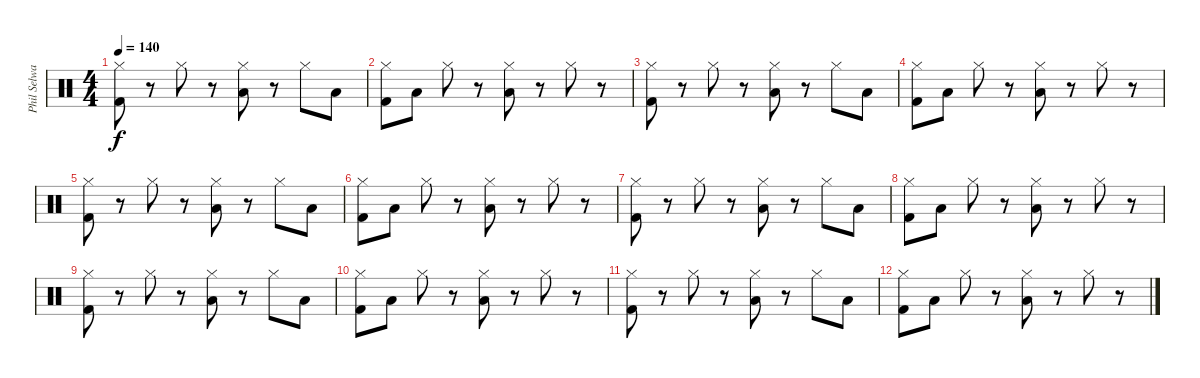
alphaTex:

\track ("Phil Selway" "Phil Selwa") {instrument percussion}
\staff {score}
\articulation defaults
\ts (4 4)
\tempo 140
\clef neutral
\ks c
("Hi-Hat (closed)" "Kick (hit) 2").8{dy f} r.8 "Hi-Hat (closed)".8 r.8 ("Hi-Hat (closed)" "Low Tom (hit)").8 r.8 "Hi-Hat (closed)".8 "Low Tom (hit)".8 |
("Hi-Hat (closed)" "Kick (hit) 2").8 "Low Tom (hit)".8 "Hi-Hat (closed)".8 r.8 ("Hi-Hat (closed)" "Low Tom (hit)").8 r.8 "Hi-Hat (closed)".8 r.8 |
("Hi-Hat (closed)" "Kick (hit) 2").8 r.8 "Hi-Hat (closed)".8 r.8 ("Hi-Hat (closed)" "Low Tom (hit)").8 r.8 "Hi-Hat (closed)".8 "Low Tom (hit)".8 |
("Hi-Hat (closed)" "Kick (hit) 2").8 "Low Tom (hit)".8 "Hi-Hat (closed)".8 r.8 ("Hi-Hat (closed)" "Low Tom (hit)").8 r.8 "Hi-Hat (closed)".8 r.8 |
("Hi-Hat (closed)" "Kick (hit) 2").8 r.8 "Hi-Hat (closed)".8 r.8 ("Hi-Hat (closed)" "Low Tom (hit)").8 r.8 "Hi-Hat (closed)".8 "Low Tom (hit)".8 |
("Hi-Hat (closed)" "Kick (hit) 2").8 "Low Tom (hit)".8 "Hi-Hat (closed)".8 r.8 ("Hi-Hat (closed)" "Low Tom (hit)").8 r.8 "Hi-Hat (closed)".8 r.8 |
("Hi-Hat (closed)" "Kick (hit) 2").8 r.8 "Hi-Hat (closed)".8 r.8 ("Hi-Hat (closed)" "Low Tom (hit)").8 r.8 "Hi-Hat (closed)".8 "Low Tom (hit)".8 |
("Hi-Hat (closed)" "Kick (hit) 2").8 "Low Tom (hit)".8 "Hi-Hat (closed)".8 r.8 ("Hi-Hat (closed)" "Low Tom (hit)").8 r.8 "Hi-Hat (closed)".8 r.8 |
("Hi-Hat (closed)" "Kick (hit) 2").8 r.8 "Hi-Hat (closed)".8 r.8 ("Hi-Hat (closed)" "Low Tom (hit)").8 r.8 "Hi-Hat (closed)".8 "Low Tom (hit)".8 |
("Hi-Hat (closed)" "Kick (hit) 2").8 "Low Tom (hit)".8 "Hi-Hat (closed)".8 r.8 ("Hi-Hat (closed)" "Low Tom (hit)").8 r.8 "Hi-Hat (closed)".8 r.8 |
("Hi-Hat (closed)" "Kick (hit) 2").8 r.8 "Hi-Hat (closed)".8 r.8 ("Hi-Hat (closed)" "Low Tom (hit)").8 r.8 "Hi-Hat (closed)".8 "Low Tom (hit)".8 |
("Hi-Hat (closed)" "Kick (hit) 2").8 "Low Tom (hit)".8 "Hi-Hat (closed)".8 r.8 ("Hi-Hat (closed)" "Low Tom (hit)").8 r.8 "Hi-Hat (closed)".8 r.8
